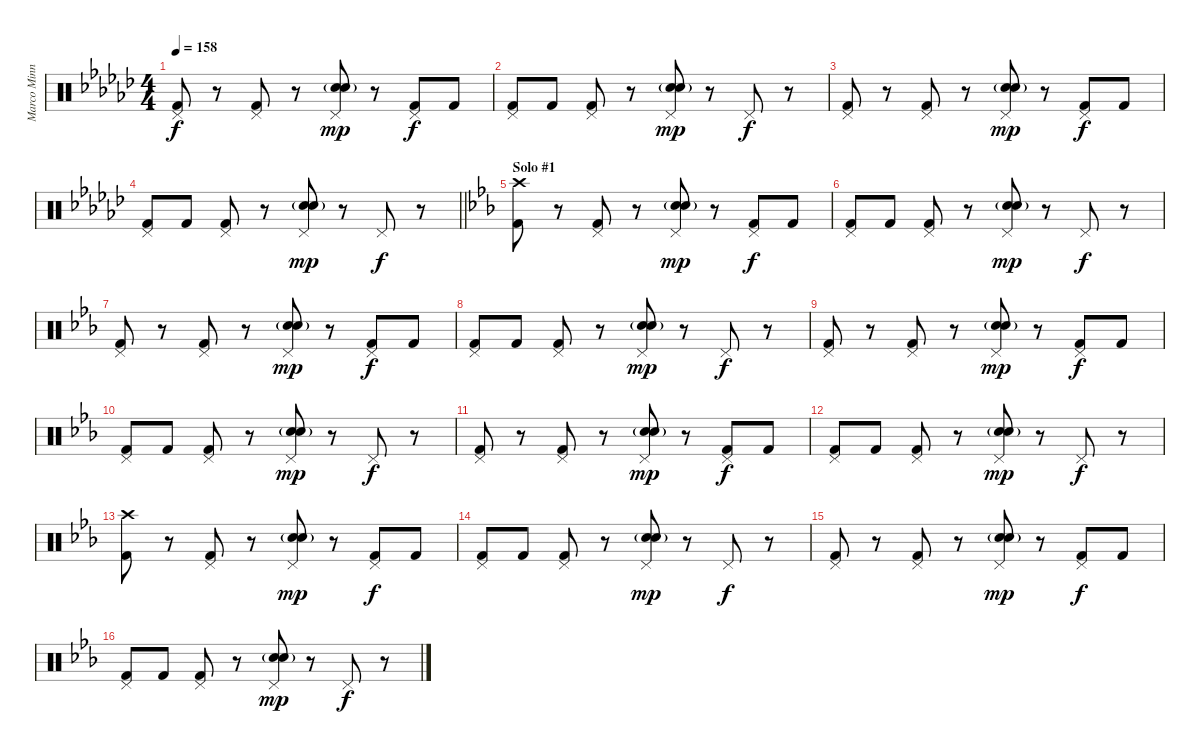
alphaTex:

\track ("Marco Minnemann (Drums)" "Marco Minn") {instrument percussion}
\staff {score}
\articulation defaults
\ts (4 4)
\tempo 158
\clef neutral
\ks gb
("Pedal Hi-Hat (hit)" "Kick (hit) 2").8{dy f} r.8 ("Pedal Hi-Hat (hit)" "Kick (hit) 2").8 r.8 ("Pedal Hi-Hat (hit)" "Snare (hit) 2"{g} "Electric Snare (hit)").8{dy mp} r.8 ("Pedal Hi-Hat (hit)" "Kick (hit) 2").8{dy f} "Kick (hit) 2".8 |
("Pedal Hi-Hat (hit)" "Kick (hit) 2").8 "Kick (hit) 2".8 ("Pedal Hi-Hat (hit)" "Kick (hit) 2").8 r.8 ("Pedal Hi-Hat (hit)" "Snare (hit) 2"{g} "Electric Snare (hit)").8{dy mp} r.8 "Pedal Hi-Hat (hit)".8{dy f} r.8 |
("Pedal Hi-Hat (hit)" "Kick (hit) 2").8 r.8 ("Pedal Hi-Hat (hit)" "Kick (hit) 2").8 r.8 ("Pedal Hi-Hat (hit)" "Snare (hit) 2"{g} "Electric Snare (hit)").8{dy mp} r.8 ("Pedal Hi-Hat (hit)" "Kick (hit) 2").8{dy f} "Kick (hit) 2".8 |
\barLineRight lightlight
("Pedal Hi-Hat (hit)" "Kick (hit) 2").8 "Kick (hit) 2".8 ("Pedal Hi-Hat (hit)" "Kick (hit) 2").8 r.8 ("Pedal Hi-Hat (hit)" "Snare (hit) 2"{g} "Electric Snare (hit)").8{dy mp} r.8 "Pedal Hi-Hat (hit)".8{dy f} r.8 |
\section ("" "Solo #1")
\ks eb
("Crash high (hit)" "Kick (hit) 2").8 r.8 ("Pedal Hi-Hat (hit)" "Kick (hit) 2").8 r.8 ("Pedal Hi-Hat (hit)" "Snare (hit) 2"{g} "Electric Snare (hit)").8{dy mp} r.8 ("Pedal Hi-Hat (hit)" "Kick (hit) 2").8{dy f} "Kick (hit) 2".8 |
("Pedal Hi-Hat (hit)" "Kick (hit) 2").8 "Kick (hit) 2".8 ("Pedal Hi-Hat (hit)" "Kick (hit) 2").8 r.8 ("Pedal Hi-Hat (hit)" "Snare (hit) 2"{g} "Electric Snare (hit)").8{dy mp} r.8 "Pedal Hi-Hat (hit)".8{dy f} r.8 |
("Pedal Hi-Hat (hit)" "Kick (hit) 2").8 r.8 ("Pedal Hi-Hat (hit)" "Kick (hit) 2").8 r.8 ("Pedal Hi-Hat (hit)" "Snare (hit) 2"{g} "Electric Snare (hit)").8{dy mp} r.8 ("Pedal Hi-Hat (hit)" "Kick (hit) 2").8{dy f} "Kick (hit) 2".8 |
("Pedal Hi-Hat (hit)" "Kick (hit) 2").8 "Kick (hit) 2".8 ("Pedal Hi-Hat (hit)" "Kick (hit) 2").8 r.8 ("Pedal Hi-Hat (hit)" "Snare (hit) 2"{g} "Electric Snare (hit)").8{dy mp} r.8 "Pedal Hi-Hat (hit)".8{dy f} r.8 |
("Pedal Hi-Hat (hit)" "Kick (hit) 2").8 r.8 ("Pedal Hi-Hat (hit)" "Kick (hit) 2").8 r.8 ("Pedal Hi-Hat (hit)" "Snare (hit) 2"{g} "Electric Snare (hit)").8{dy mp} r.8 ("Pedal Hi-Hat (hit)" "Kick (hit) 2").8{dy f} "Kick (hit) 2".8 |
("Pedal Hi-Hat (hit)" "Kick (hit) 2").8 "Kick (hit) 2".8 ("Pedal Hi-Hat (hit)" "Kick (hit) 2").8 r.8 ("Pedal Hi-Hat (hit)" "Snare (hit) 2"{g} "Electric Snare (hit)").8{dy mp} r.8 "Pedal Hi-Hat (hit)".8{dy f} r.8 |
("Pedal Hi-Hat (hit)" "Kick (hit) 2").8 r.8 ("Pedal Hi-Hat (hit)" "Kick (hit) 2").8 r.8 ("Pedal Hi-Hat (hit)" "Snare (hit) 2"{g} "Electric Snare (hit)").8{dy mp} r.8 ("Pedal Hi-Hat (hit)" "Kick (hit) 2").8{dy f} "Kick (hit) 2".8 |
("Pedal Hi-Hat (hit)" "Kick (hit) 2").8 "Kick (hit) 2".8 ("Pedal Hi-Hat (hit)" "Kick (hit) 2").8 r.8 ("Pedal Hi-Hat (hit)" "Snare (hit) 2"{g} "Electric Snare (hit)").8{dy mp} r.8 "Pedal Hi-Hat (hit)".8{dy f} r.8 |
("Crash high (hit)" "Kick (hit) 2").8 r.8 ("Pedal Hi-Hat (hit)" "Kick (hit) 2").8 r.8 ("Pedal Hi-Hat (hit)" "Snare (hit) 2"{g} "Electric Snare (hit)").8{dy mp} r.8 ("Pedal Hi-Hat (hit)" "Kick (hit) 2").8{dy f} "Kick (hit) 2".8 |
("Pedal Hi-Hat (hit)" "Kick (hit) 2").8 "Kick (hit) 2".8 ("Pedal Hi-Hat (hit)" "Kick (hit) 2").8 r.8 ("Pedal Hi-Hat (hit)" "Snare (hit) 2"{g} "Electric Snare (hit)").8{dy mp} r.8 "Pedal Hi-Hat (hit)".8{dy f} r.8 |
("Pedal Hi-Hat (hit)" "Kick (hit) 2").8 r.8 ("Pedal Hi-Hat (hit)" "Kick (hit) 2").8 r.8 ("Pedal Hi-Hat (hit)" "Snare (hit) 2"{g} "Electric Snare (hit)").8{dy mp} r.8 ("Pedal Hi-Hat (hit)" "Kick (hit) 2").8{dy f} "Kick (hit) 2".8 |
("Pedal Hi-Hat (hit)" "Kick (hit) 2").8 "Kick (hit) 2".8 ("Pedal Hi-Hat (hit)" "Kick (hit) 2").8 r.8 ("Pedal Hi-Hat (hit)" "Snare (hit) 2"{g} "Electric Snare (hit)").8{dy mp} r.8 "Pedal Hi-Hat (hit)".8{dy f} r.8
